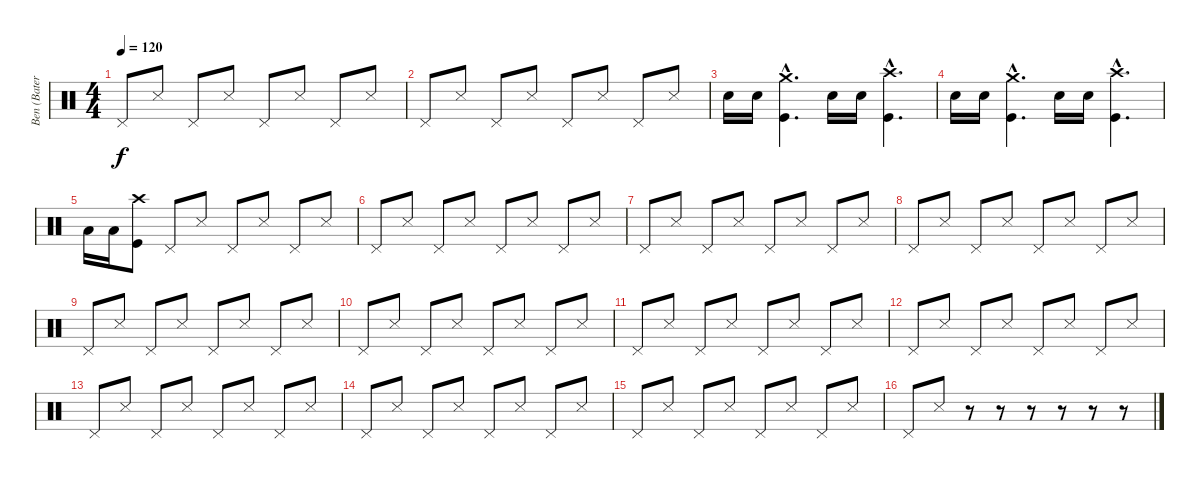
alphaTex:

\track ("Ben (Bateria)" "Ben (Bater") {instrument percussion}
\staff {score}
\articulation defaults
\ts (4 4)
\tempo 120
\clef neutral
\ks c "Pedal Hi-Hat (hit)".8{dy f} "Snare (side stick) 3".8 "Pedal Hi-Hat (hit)".8 "Snare (side stick) 3".8 "Pedal Hi-Hat (hit)".8 "Snare (side stick) 3".8 "Pedal Hi-Hat (hit)".8 "Snare (side stick) 3".8
|
"Pedal Hi-Hat (hit)".8 "Snare (side stick) 3".8 "Pedal Hi-Hat (hit)".8 "Snare (side stick) 3".8 "Pedal Hi-Hat (hit)".8 "Snare (side stick) 3".8 "Pedal Hi-Hat (hit)".8 "Snare (side stick) 3".8 |
"Snare (hit) 2".16 "Snare (hit) 2".16 ("Kick (hit)"{hac} "Crash medium (hit)"{hac}).4{d} "Snare (hit) 2".16 "Snare (hit) 2".16 ("Kick (hit)"{hac} "Crash high (hit)"{hac}).4{d} |
"Snare (hit) 2".16 "Snare (hit) 2".16 ("Kick (hit)"{hac} "Crash medium (hit)"{hac}).4{d} "Snare (hit) 2".16 "Snare (hit) 2".16 ("Kick (hit)"{hac} "Crash high (hit)"{hac}).4{d} |
"Low Floor Tom (hit)".16 "Low Floor Tom (hit)".16 ("Kick (hit)" "Crash high (hit)").8 "Pedal Hi-Hat (hit)".8 "Snare (side stick) 3".8 "Pedal Hi-Hat (hit)".8 "Snare (side stick) 3".8 "Pedal Hi-Hat (hit)".8 "Snare (side stick) 3".8 |
"Pedal Hi-Hat (hit)".8 "Snare (side stick) 3".8 "Pedal Hi-Hat (hit)".8 "Snare (side stick) 3".8 "Pedal Hi-Hat (hit)".8 "Snare (side stick) 3".8 "Pedal Hi-Hat (hit)".8 "Snare (side stick) 3".8 |
"Pedal Hi-Hat (hit)".8 "Snare (side stick) 3".8 "Pedal Hi-Hat (hit)".8 "Snare (side stick) 3".8 "Pedal Hi-Hat (hit)".8 "Snare (side stick) 3".8 "Pedal Hi-Hat (hit)".8 "Snare (side stick) 3".8 |
"Pedal Hi-Hat (hit)".8 "Snare (side stick) 3".8 "Pedal Hi-Hat (hit)".8 "Snare (side stick) 3".8 "Pedal Hi-Hat (hit)".8 "Snare (side stick) 3".8 "Pedal Hi-Hat (hit)".8 "Snare (side stick) 3".8 |
"Pedal Hi-Hat (hit)".8 "Snare (side stick) 3".8 "Pedal Hi-Hat (hit)".8 "Snare (side stick) 3".8 "Pedal Hi-Hat (hit)".8 "Snare (side stick) 3".8 "Pedal Hi-Hat (hit)".8 "Snare (side stick) 3".8 |
"Pedal Hi-Hat (hit)".8 "Snare (side stick) 3".8 "Pedal Hi-Hat (hit)".8 "Snare (side stick) 3".8 "Pedal Hi-Hat (hit)".8 "Snare (side stick) 3".8 "Pedal Hi-Hat (hit)".8 "Snare (side stick) 3".8 |
"Pedal Hi-Hat (hit)".8 "Snare (side stick) 3".8 "Pedal Hi-Hat (hit)".8 "Snare (side stick) 3".8 "Pedal Hi-Hat (hit)".8 "Snare (side stick) 3".8 "Pedal Hi-Hat (hit)".8 "Snare (side stick) 3".8 |
"Pedal Hi-Hat (hit)".8 "Snare (side stick) 3".8 "Pedal Hi-Hat (hit)".8 "Snare (side stick) 3".8 "Pedal Hi-Hat (hit)".8 "Snare (side stick) 3".8 "Pedal Hi-Hat (hit)".8 "Snare (side stick) 3".8 |
"Pedal Hi-Hat (hit)".8 "Snare (side stick) 3".8 "Pedal Hi-Hat (hit)".8 "Snare (side stick) 3".8 "Pedal Hi-Hat (hit)".8 "Snare (side stick) 3".8 "Pedal Hi-Hat (hit)".8 "Snare (side stick) 3".8 |
"Pedal Hi-Hat (hit)".8 "Snare (side stick) 3".8 "Pedal Hi-Hat (hit)".8 "Snare (side stick) 3".8 "Pedal Hi-Hat (hit)".8 "Snare (side stick) 3".8 "Pedal Hi-Hat (hit)".8 "Snare (side stick) 3".8 |
"Pedal Hi-Hat (hit)".8 "Snare (side stick) 3".8 "Pedal Hi-Hat (hit)".8 "Snare (side stick) 3".8 "Pedal Hi-Hat (hit)".8 "Snare (side stick) 3".8 "Pedal Hi-Hat (hit)".8 "Snare (side stick) 3".8 |
"Pedal Hi-Hat (hit)".8 "Snare (side stick) 3".8 r.8 r.8 r.8 r.8 r.8 r.8
